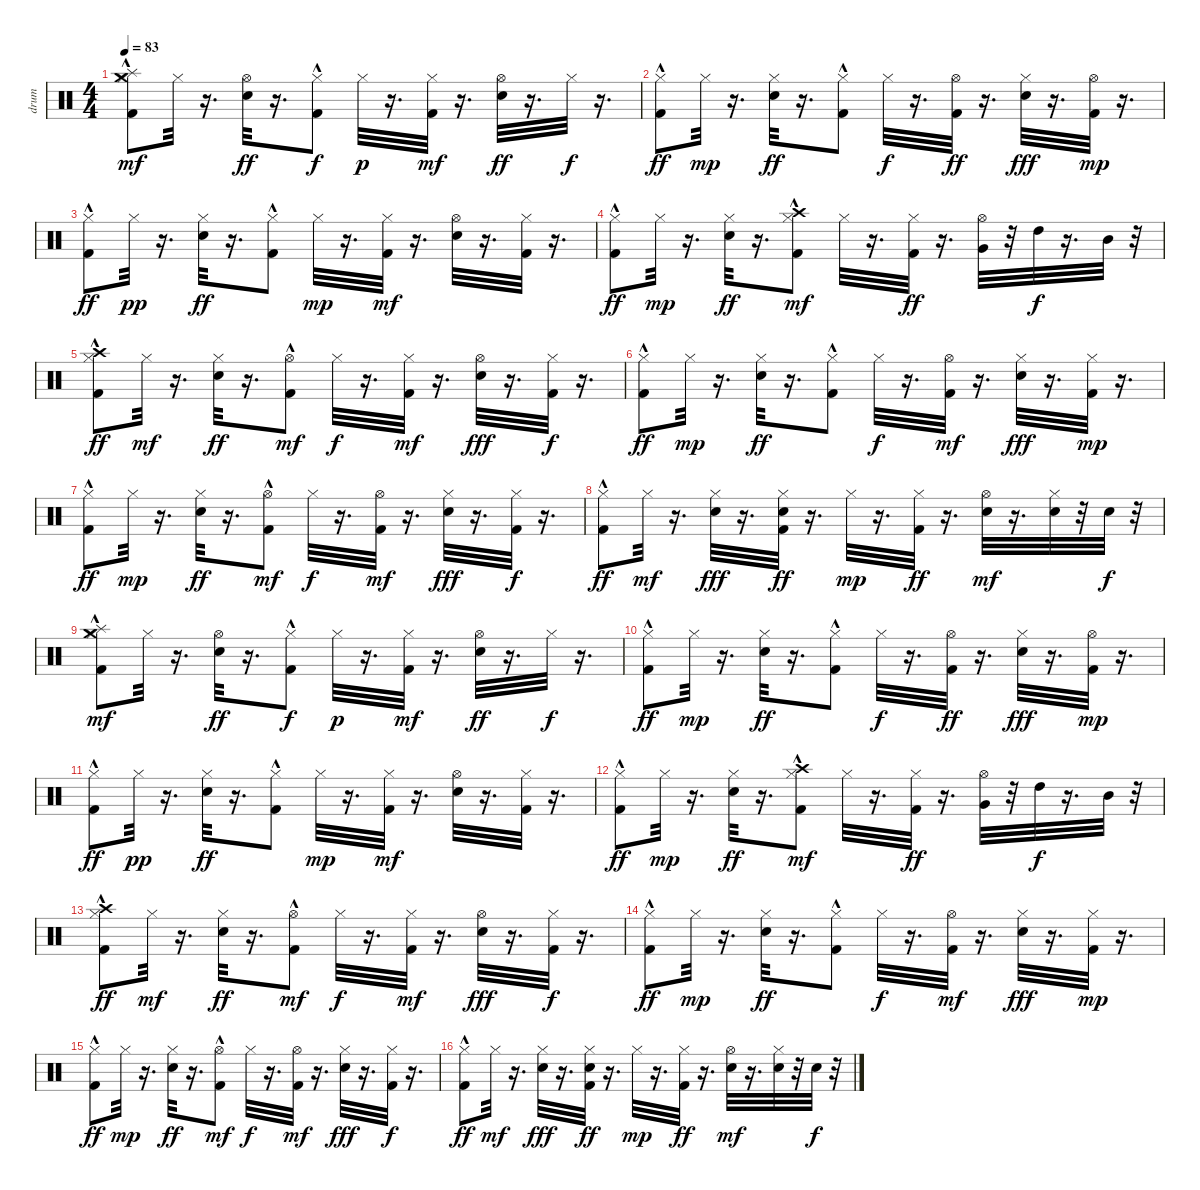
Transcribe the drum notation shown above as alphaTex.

\track ("drum" "drum") {instrument percussion}
\staff {score}
\articulation defaults
\ts (4 4)
\tempo 83
\clef neutral
\ks c
("Kick (hit) 2"{hac} "Hi-Hat (closed)" "Splash (hit)" "Crash medium (hit)").8{dy mf} "Hi-Hat (closed)".32 r.16{d} ("Electric Snare (hit)" "Hi-Hat (open)").32{dy ff} r.16{d} ("Kick (hit) 2"{hac} "Hi-Hat (closed)").8{dy f} "Hi-Hat (closed)".32{dy p} r.16{d} ("Kick (hit) 2" "Hi-Hat (closed)").32{dy mf} r.16{d} ("Electric Snare (hit)" "Hi-Hat (open)").32{dy ff} r.16{d} "Hi-Hat (closed)".32{dy f} r.16{d} |
("Kick (hit) 2"{hac} "Hi-Hat (closed)").8{dy ff} "Hi-Hat (closed)".32{dy mp} r.16{d} ("Electric Snare (hit)" "Hi-Hat (closed)").32{dy ff} r.16{d} ("Kick (hit) 2"{hac} "Hi-Hat (closed)").8 "Hi-Hat (closed)".32{dy f} r.16{d} ("Kick (hit) 2" "Hi-Hat (open)").32{dy ff} r.16{d} ("Electric Snare (hit)" "Hi-Hat (closed)").32{dy fff} r.16{d} ("Kick (hit) 2" "Hi-Hat (open)").32{dy mp} r.16{d} |
("Kick (hit) 2"{hac} "Hi-Hat (closed)").8{dy ff} "Hi-Hat (closed)".32{dy pp} r.16{d} ("Electric Snare (hit)" "Hi-Hat (closed)").32{dy ff} r.16{d} ("Kick (hit) 2"{hac} "Hi-Hat (closed)").8 "Hi-Hat (closed)".32{dy mp} r.16{d} ("Kick (hit) 2" "Hi-Hat (closed)").32{dy mf} r.16{d} ("Electric Snare (hit)" "Hi-Hat (open)").32 r.16{d} ("Kick (hit) 2" "Hi-Hat (closed)").32 r.16{d} |
("Kick (hit) 2"{hac} "Hi-Hat (closed)").8{dy ff} "Hi-Hat (closed)".32{dy mp} r.16{d} ("Electric Snare (hit)" "Hi-Hat (closed)").32{dy ff} r.16{d} ("Kick (hit) 2"{hac} "Hi-Hat (closed)" "Crash high (hit)"{hac}).8{dy mf} "Hi-Hat (closed)".32 r.16{d} ("Kick (hit) 2" "Hi-Hat (closed)").32{dy ff} r.16{d} ("Very Low Tom (hit)" "Hi-Hat (open)").32 r.32 "High Tom (hit)".32{dy f} r.16{d} "Mid Tom (hit)".32 r.32 |
("Kick (hit) 2"{hac} "Hi-Hat (closed)" "Crash high (hit)").8{dy ff} "Hi-Hat (closed)".32{dy mf} r.16{d} ("Electric Snare (hit)" "Hi-Hat (closed)").32{dy ff} r.16{d} ("Kick (hit) 2"{hac} "Hi-Hat (open)").8{dy mf} "Hi-Hat (closed)".32{dy f} r.16{d} ("Kick (hit) 2" "Hi-Hat (closed)").32{dy mf} r.16{d} ("Electric Snare (hit)" "Hi-Hat (open)").32{dy fff} r.16{d} ("Kick (hit) 2" "Hi-Hat (closed)").32{dy f} r.16{d} |
("Kick (hit) 2"{hac} "Hi-Hat (closed)").8{dy ff} "Hi-Hat (closed)".32{dy mp} r.16{d} ("Electric Snare (hit)" "Hi-Hat (closed)").32{dy ff} r.16{d} ("Kick (hit) 2"{hac} "Hi-Hat (closed)").8 "Hi-Hat (closed)".32{dy f} r.16{d} ("Kick (hit) 2" "Hi-Hat (open)").32{dy mf} r.16{d} ("Electric Snare (hit)" "Hi-Hat (closed)").32{dy fff} r.16{d} ("Kick (hit) 2" "Hi-Hat (closed)").32{dy mp} r.16{d} |
("Kick (hit) 2"{hac} "Hi-Hat (closed)").8{dy ff} "Hi-Hat (closed)".32{dy mp} r.16{d} ("Electric Snare (hit)" "Hi-Hat (closed)").32{dy ff} r.16{d} ("Kick (hit) 2"{hac} "Hi-Hat (open)").8{dy mf} "Hi-Hat (closed)".32{dy f} r.16{d} ("Kick (hit) 2" "Hi-Hat (open)").32{dy mf} r.16{d} ("Electric Snare (hit)" "Hi-Hat (closed)").32{dy fff} r.16{d} ("Kick (hit) 2" "Hi-Hat (closed)").32{dy f} r.16{d} |
("Kick (hit) 2"{hac} "Hi-Hat (closed)").8{dy ff} "Hi-Hat (closed)".32{dy mf} r.16{d} ("Electric Snare (hit)" "Hi-Hat (closed)").32{dy fff} r.16{d} ("Kick (hit) 2" "Electric Snare (hit)" "Hi-Hat (closed)").32{dy ff} r.16{d} "Hi-Hat (closed)".32{dy mp} r.16{d} ("Kick (hit) 2" "Hi-Hat (closed)").32{dy ff} r.16{d} ("Electric Snare (hit)" "Hi-Hat (open)").32{dy mf} r.16{d} ("Electric Snare (hit)" "Hi-Hat (closed)").32 r.32 "Electric Snare (hit)".32{dy f} r.32 |
("Kick (hit) 2"{hac} "Hi-Hat (closed)" "Splash (hit)" "Crash medium (hit)").8{dy mf} "Hi-Hat (closed)".32 r.16{d} ("Electric Snare (hit)" "Hi-Hat (open)").32{dy ff} r.16{d} ("Kick (hit) 2"{hac} "Hi-Hat (closed)").8{dy f} "Hi-Hat (closed)".32{dy p} r.16{d} ("Kick (hit) 2" "Hi-Hat (closed)").32{dy mf} r.16{d} ("Electric Snare (hit)" "Hi-Hat (open)").32{dy ff} r.16{d} "Hi-Hat (closed)".32{dy f} r.16{d} |
("Kick (hit) 2"{hac} "Hi-Hat (closed)").8{dy ff} "Hi-Hat (closed)".32{dy mp} r.16{d} ("Electric Snare (hit)" "Hi-Hat (closed)").32{dy ff} r.16{d} ("Kick (hit) 2"{hac} "Hi-Hat (closed)").8 "Hi-Hat (closed)".32{dy f} r.16{d} ("Kick (hit) 2" "Hi-Hat (open)").32{dy ff} r.16{d} ("Electric Snare (hit)" "Hi-Hat (closed)").32{dy fff} r.16{d} ("Kick (hit) 2" "Hi-Hat (open)").32{dy mp} r.16{d} |
("Kick (hit) 2"{hac} "Hi-Hat (closed)").8{dy ff} "Hi-Hat (closed)".32{dy pp} r.16{d} ("Electric Snare (hit)" "Hi-Hat (closed)").32{dy ff} r.16{d} ("Kick (hit) 2"{hac} "Hi-Hat (closed)").8 "Hi-Hat (closed)".32{dy mp} r.16{d} ("Kick (hit) 2" "Hi-Hat (closed)").32{dy mf} r.16{d} ("Electric Snare (hit)" "Hi-Hat (open)").32 r.16{d} ("Kick (hit) 2" "Hi-Hat (closed)").32 r.16{d} |
("Kick (hit) 2"{hac} "Hi-Hat (closed)").8{dy ff} "Hi-Hat (closed)".32{dy mp} r.16{d} ("Electric Snare (hit)" "Hi-Hat (closed)").32{dy ff} r.16{d} ("Kick (hit) 2"{hac} "Hi-Hat (closed)" "Crash high (hit)"{hac}).8{dy mf} "Hi-Hat (closed)".32 r.16{d} ("Kick (hit) 2" "Hi-Hat (closed)").32{dy ff} r.16{d} ("Very Low Tom (hit)" "Hi-Hat (open)").32 r.32 "High Tom (hit)".32{dy f} r.16{d} "Mid Tom (hit)".32 r.32 |
("Kick (hit) 2"{hac} "Hi-Hat (closed)" "Crash high (hit)").8{dy ff} "Hi-Hat (closed)".32{dy mf} r.16{d} ("Electric Snare (hit)" "Hi-Hat (closed)").32{dy ff} r.16{d} ("Kick (hit) 2"{hac} "Hi-Hat (open)").8{dy mf} "Hi-Hat (closed)".32{dy f} r.16{d} ("Kick (hit) 2" "Hi-Hat (closed)").32{dy mf} r.16{d} ("Electric Snare (hit)" "Hi-Hat (open)").32{dy fff} r.16{d} ("Kick (hit) 2" "Hi-Hat (closed)").32{dy f} r.16{d} |
("Kick (hit) 2"{hac} "Hi-Hat (closed)").8{dy ff} "Hi-Hat (closed)".32{dy mp} r.16{d} ("Electric Snare (hit)" "Hi-Hat (closed)").32{dy ff} r.16{d} ("Kick (hit) 2"{hac} "Hi-Hat (closed)").8 "Hi-Hat (closed)".32{dy f} r.16{d} ("Kick (hit) 2" "Hi-Hat (open)").32{dy mf} r.16{d} ("Electric Snare (hit)" "Hi-Hat (closed)").32{dy fff} r.16{d} ("Kick (hit) 2" "Hi-Hat (closed)").32{dy mp} r.16{d} |
("Kick (hit) 2"{hac} "Hi-Hat (closed)").8{dy ff} "Hi-Hat (closed)".32{dy mp} r.16{d} ("Electric Snare (hit)" "Hi-Hat (closed)").32{dy ff} r.16{d} ("Kick (hit) 2"{hac} "Hi-Hat (open)").8{dy mf} "Hi-Hat (closed)".32{dy f} r.16{d} ("Kick (hit) 2" "Hi-Hat (open)").32{dy mf} r.16{d} ("Electric Snare (hit)" "Hi-Hat (closed)").32{dy fff} r.16{d} ("Kick (hit) 2" "Hi-Hat (closed)").32{dy f} r.16{d} |
("Kick (hit) 2"{hac} "Hi-Hat (closed)").8{dy ff} "Hi-Hat (closed)".32{dy mf} r.16{d} ("Electric Snare (hit)" "Hi-Hat (closed)").32{dy fff} r.16{d} ("Kick (hit) 2" "Electric Snare (hit)" "Hi-Hat (closed)").32{dy ff} r.16{d} "Hi-Hat (closed)".32{dy mp} r.16{d} ("Kick (hit) 2" "Hi-Hat (closed)").32{dy ff} r.16{d} ("Electric Snare (hit)" "Hi-Hat (open)").32{dy mf} r.16{d} ("Electric Snare (hit)" "Hi-Hat (closed)").32 r.32 "Electric Snare (hit)".32{dy f} r.32
